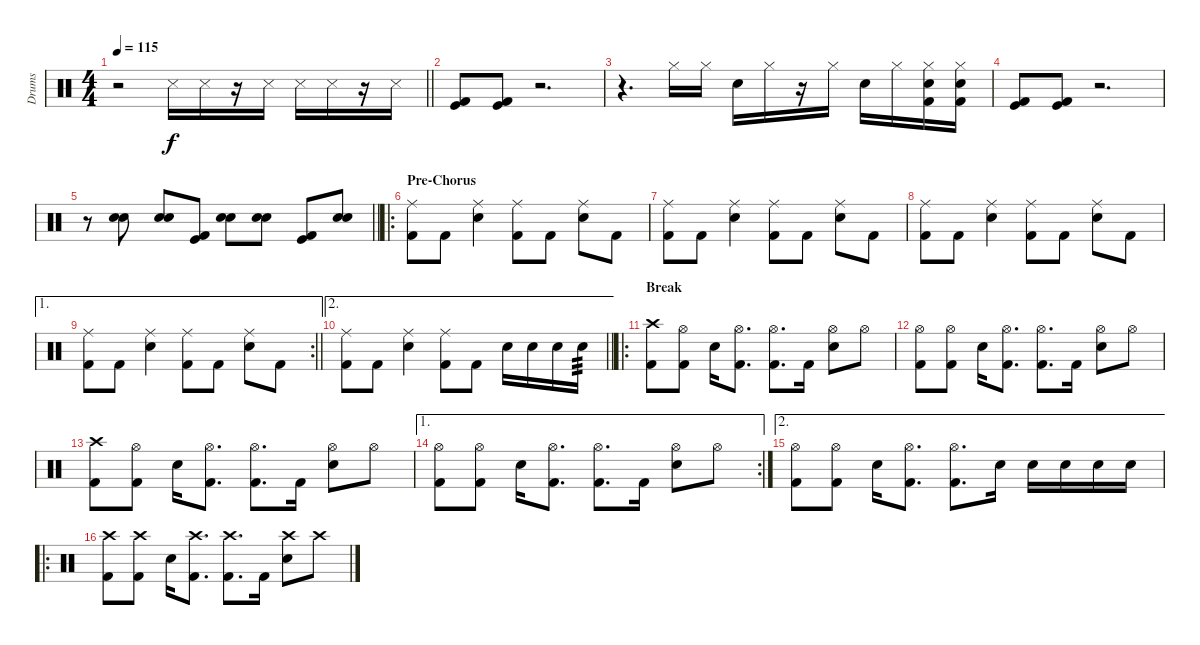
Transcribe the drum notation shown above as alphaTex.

\track ("Drums" "Drums") {instrument percussion}
\staff {score}
\articulation defaults
\ts (4 4)
\tempo 115
\clef neutral
\barLineRight lightlight
\ks c
r.2{dy f} "Metronome (hit)".16 "Metronome (hit)".16 r.16 "Metronome (hit)".16 "Metronome (hit)".16 "Metronome (hit)".16 r.16 "Metronome (hit)".16 |
("Kick (hit)" "Kick (hit) 2").8{bd 60} ("Kick (hit)" "Kick (hit) 2").8{bd 60} r.2{d} |
r.4{d} "Hi-Hat (closed)".16 "Hi-Hat (closed)".16 "Hand Clap (hit)".16 "Hi-Hat (closed)".16 r.16 "Hi-Hat (closed)".16 "Hand Clap (hit)".16 "Hi-Hat (closed)".16 ("Hi-Hat (closed)" "Kick (hit) 2" "Hand Clap (hit)").16 ("Hi-Hat (closed)" "Kick (hit) 2" "Hand Clap (hit)").16 |
("Kick (hit)" "Kick (hit) 2").8{bd 60} ("Kick (hit)" "Kick (hit) 2").8{bd 60} r.2{d} |
\barLineRight lightlight
r.8 ("Electric Snare (hit)" "Snare (hit) 2").8{bd 30} ("Electric Snare (hit)" "Snare (hit) 2").8{bd 30} ("Kick (hit)" "Kick (hit) 2").8{bd 30} ("Electric Snare (hit)" "Snare (hit) 2").8{bd 30} ("Electric Snare (hit)" "Snare (hit) 2").8{bd 30} ("Kick (hit)" "Kick (hit) 2").8{bd 30} ("Electric Snare (hit)" "Snare (hit) 2").8{bd 30} |
\ro
\section ("" "Pre-Chorus")
("Ride (middle)" "Kick (hit) 2").8 "Kick (hit) 2".8 ("Ride (middle)" "Electric Snare (hit)").4 ("Ride (middle)" "Kick (hit) 2").8 "Kick (hit) 2".8 ("Ride (middle)" "Electric Snare (hit)").8 "Kick (hit) 2".8 |
("Ride (middle)" "Kick (hit) 2").8 "Kick (hit) 2".8 ("Ride (middle)" "Electric Snare (hit)").4 ("Ride (middle)" "Kick (hit) 2").8 "Kick (hit) 2".8 ("Ride (middle)" "Electric Snare (hit)").8 "Kick (hit) 2".8 |
("Ride (middle)" "Kick (hit) 2").8 "Kick (hit) 2".8 ("Ride (middle)" "Electric Snare (hit)").4 ("Ride (middle)" "Kick (hit) 2").8 "Kick (hit) 2".8 ("Ride (middle)" "Electric Snare (hit)").8 "Kick (hit) 2".8 |
\ae 1
\rc 2
\barLineRight lightlight
("Ride (middle)" "Kick (hit) 2").8 "Kick (hit) 2".8 ("Ride (middle)" "Electric Snare (hit)").4 ("Ride (middle)" "Kick (hit) 2").8 "Kick (hit) 2".8 ("Ride (middle)" "Electric Snare (hit)").8 "Kick (hit) 2".8 |
\ae 2
\barLineRight lightlight
("Ride (middle)" "Kick (hit) 2").8 "Kick (hit) 2".8 ("Ride (middle)" "Electric Snare (hit)").4 ("Ride (middle)" "Kick (hit) 2").8 "Kick (hit) 2".8 "Snare (hit) 2".16 "Snare (hit) 2".16 "Snare (hit) 2".16 "Snare (hit) 2".16{tp 3} |
\ro
\section ("" "Break")
("Crash high (hit)" "Kick (hit) 2").8 ("Hi-Hat (open)" "Kick (hit) 2").8 "Snare (hit) 2".16 ("Hi-Hat (open)" "Kick (hit) 2").8{d} ("Hi-Hat (open)" "Kick (hit) 2").8{d} "Kick (hit) 2".16 ("Hi-Hat (open)" "Snare (hit) 2").8 "Hi-Hat (open)".8 |
("Hi-Hat (open)" "Kick (hit) 2").8 ("Hi-Hat (open)" "Kick (hit) 2").8 "Snare (hit) 2".16 ("Hi-Hat (open)" "Kick (hit) 2").8{d} ("Hi-Hat (open)" "Kick (hit) 2").8{d} "Kick (hit) 2".16 ("Hi-Hat (open)" "Snare (hit) 2").8 "Hi-Hat (open)".8 |
("Crash high (hit)" "Kick (hit) 2").8 ("Hi-Hat (open)" "Kick (hit) 2").8 "Snare (hit) 2".16 ("Hi-Hat (open)" "Kick (hit) 2").8{d} ("Hi-Hat (open)" "Kick (hit) 2").8{d} "Kick (hit) 2".16 ("Hi-Hat (open)" "Snare (hit) 2").8 "Hi-Hat (open)".8 |
\ae 1
\rc 2
("Hi-Hat (open)" "Kick (hit) 2").8 ("Hi-Hat (open)" "Kick (hit) 2").8 "Snare (hit) 2".16 ("Hi-Hat (open)" "Kick (hit) 2").8{d} ("Hi-Hat (open)" "Kick (hit) 2").8{d} "Kick (hit) 2".16 ("Hi-Hat (open)" "Snare (hit) 2").8 "Hi-Hat (open)".8 |
\ae 2
("Hi-Hat (open)" "Kick (hit) 2").8 ("Hi-Hat (open)" "Kick (hit) 2").8 "Snare (hit) 2".16 ("Hi-Hat (open)" "Kick (hit) 2").8{d} ("Hi-Hat (open)" "Kick (hit) 2").8{d} "Snare (hit) 2".16 "Snare (hit) 2".16 "Snare (hit) 2".16 "Snare (hit) 2".16 "Snare (hit) 2".16 |
\ro
("Crash high (hit)" "Kick (hit) 2").8 ("Crash high (hit)" "Kick (hit) 2").8 "Snare (hit) 2".16 ("Crash high (hit)" "Kick (hit) 2").8{d} ("Crash high (hit)" "Kick (hit) 2").8{d} "Kick (hit) 2".16 ("Crash high (hit)" "Snare (hit) 2").8 "Crash high (hit)".8
